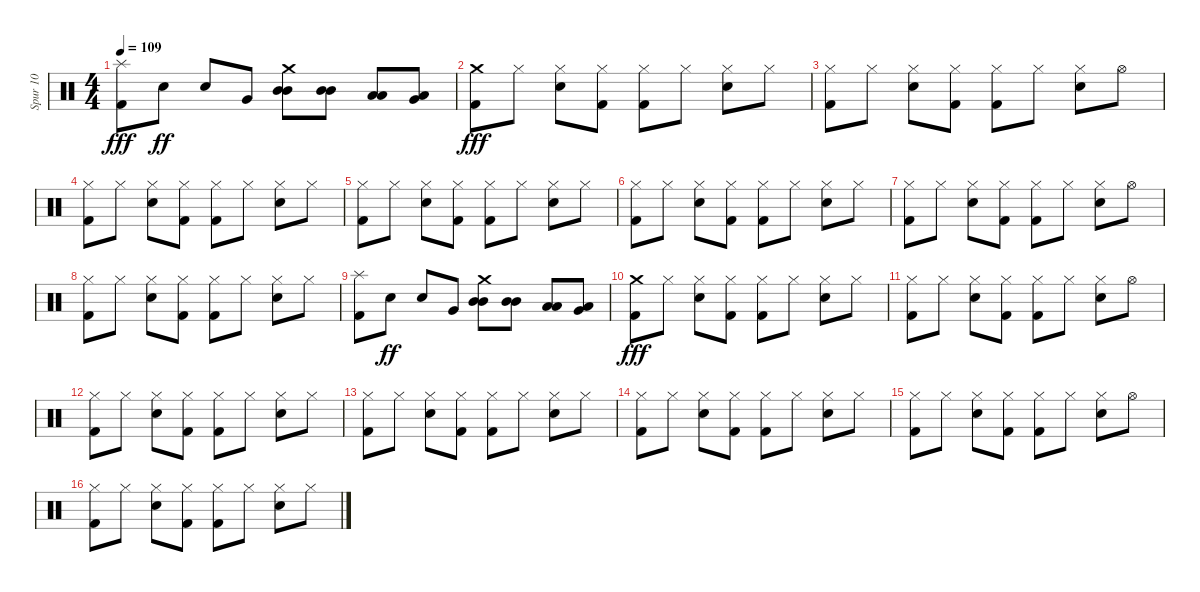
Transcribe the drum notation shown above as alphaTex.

\track ("Spur 10" "Spur 10") {instrument percussion}
\staff {score}
\articulation defaults
\ts (4 4)
\tempo 109
\clef neutral
\ks c
("Kick (hit) 2" "Splash (hit)").8{dy fff} "Snare (hit) 2".8{dy ff} "Snare (hit) 2".8 "Very Low Tom (hit)".8 ("Mid Tom (hit)" "Crash medium (hit)" "Mid Tom (hit)").8 ("Mid Tom (hit)" "Mid Tom (hit)").8 ("Low Tom (hit)" "Low Tom (hit)").8 ("Very Low Tom (hit)" "Low Floor Tom (hit)").8 |
("Kick (hit) 2" "Crash medium (hit)").8{dy fff} "Hi-Hat (closed)".8 ("Snare (hit) 2" "Hi-Hat (closed)").8 ("Kick (hit) 2" "Hi-Hat (closed)").8 ("Kick (hit) 2" "Hi-Hat (closed)").8 "Hi-Hat (closed)".8 ("Snare (hit) 2" "Hi-Hat (closed)").8 "Hi-Hat (closed)".8 |
("Kick (hit) 2" "Hi-Hat (closed)").8 "Hi-Hat (closed)".8 ("Snare (hit) 2" "Hi-Hat (closed)").8 ("Kick (hit) 2" "Hi-Hat (closed)").8 ("Kick (hit) 2" "Hi-Hat (closed)").8 "Hi-Hat (closed)".8 ("Snare (hit) 2" "Hi-Hat (closed)").8 "Hi-Hat (open)".8 |
("Kick (hit) 2" "Hi-Hat (closed)").8 "Hi-Hat (closed)".8 ("Snare (hit) 2" "Hi-Hat (closed)").8 ("Kick (hit) 2" "Hi-Hat (closed)").8 ("Kick (hit) 2" "Hi-Hat (closed)").8 "Hi-Hat (closed)".8 ("Snare (hit) 2" "Hi-Hat (closed)").8 "Hi-Hat (closed)".8 |
("Kick (hit) 2" "Hi-Hat (closed)").8 "Hi-Hat (closed)".8 ("Snare (hit) 2" "Hi-Hat (closed)").8 ("Kick (hit) 2" "Hi-Hat (closed)").8 ("Kick (hit) 2" "Hi-Hat (closed)").8 "Hi-Hat (closed)".8 ("Snare (hit) 2" "Hi-Hat (closed)").8 "Hi-Hat (closed)".8 |
("Kick (hit) 2" "Hi-Hat (closed)").8 "Hi-Hat (closed)".8 ("Snare (hit) 2" "Hi-Hat (closed)").8 ("Kick (hit) 2" "Hi-Hat (closed)").8 ("Kick (hit) 2" "Hi-Hat (closed)").8 "Hi-Hat (closed)".8 ("Snare (hit) 2" "Hi-Hat (closed)").8 "Hi-Hat (closed)".8 |
("Kick (hit) 2" "Hi-Hat (closed)").8 "Hi-Hat (closed)".8 ("Snare (hit) 2" "Hi-Hat (closed)").8 ("Kick (hit) 2" "Hi-Hat (closed)").8 ("Kick (hit) 2" "Hi-Hat (closed)").8 "Hi-Hat (closed)".8 ("Snare (hit) 2" "Hi-Hat (closed)").8 "Hi-Hat (open)".8 |
("Kick (hit) 2" "Hi-Hat (closed)").8 "Hi-Hat (closed)".8 ("Snare (hit) 2" "Hi-Hat (closed)").8 ("Kick (hit) 2" "Hi-Hat (closed)").8 ("Kick (hit) 2" "Hi-Hat (closed)").8 "Hi-Hat (closed)".8 ("Snare (hit) 2" "Hi-Hat (closed)").8 "Hi-Hat (closed)".8 |
("Kick (hit) 2" "Splash (hit)").8 "Snare (hit) 2".8{dy ff} "Snare (hit) 2".8 "Very Low Tom (hit)".8 ("Mid Tom (hit)" "Crash medium (hit)" "Mid Tom (hit)").8 ("Mid Tom (hit)" "Mid Tom (hit)").8 ("Low Tom (hit)" "Low Tom (hit)").8 ("Very Low Tom (hit)" "Low Floor Tom (hit)").8 |
("Kick (hit) 2" "Crash medium (hit)").8{dy fff} "Hi-Hat (closed)".8 ("Snare (hit) 2" "Hi-Hat (closed)").8 ("Kick (hit) 2" "Hi-Hat (closed)").8 ("Kick (hit) 2" "Hi-Hat (closed)").8 "Hi-Hat (closed)".8 ("Snare (hit) 2" "Hi-Hat (closed)").8 "Hi-Hat (closed)".8 |
("Kick (hit) 2" "Hi-Hat (closed)").8 "Hi-Hat (closed)".8 ("Snare (hit) 2" "Hi-Hat (closed)").8 ("Kick (hit) 2" "Hi-Hat (closed)").8 ("Kick (hit) 2" "Hi-Hat (closed)").8 "Hi-Hat (closed)".8 ("Snare (hit) 2" "Hi-Hat (closed)").8 "Hi-Hat (open)".8 |
("Kick (hit) 2" "Hi-Hat (closed)").8 "Hi-Hat (closed)".8 ("Snare (hit) 2" "Hi-Hat (closed)").8 ("Kick (hit) 2" "Hi-Hat (closed)").8 ("Kick (hit) 2" "Hi-Hat (closed)").8 "Hi-Hat (closed)".8 ("Snare (hit) 2" "Hi-Hat (closed)").8 "Hi-Hat (closed)".8 |
("Kick (hit) 2" "Hi-Hat (closed)").8 "Hi-Hat (closed)".8 ("Snare (hit) 2" "Hi-Hat (closed)").8 ("Kick (hit) 2" "Hi-Hat (closed)").8 ("Kick (hit) 2" "Hi-Hat (closed)").8 "Hi-Hat (closed)".8 ("Snare (hit) 2" "Hi-Hat (closed)").8 "Hi-Hat (closed)".8 |
("Kick (hit) 2" "Hi-Hat (closed)").8 "Hi-Hat (closed)".8 ("Snare (hit) 2" "Hi-Hat (closed)").8 ("Kick (hit) 2" "Hi-Hat (closed)").8 ("Kick (hit) 2" "Hi-Hat (closed)").8 "Hi-Hat (closed)".8 ("Snare (hit) 2" "Hi-Hat (closed)").8 "Hi-Hat (closed)".8 |
("Kick (hit) 2" "Hi-Hat (closed)").8 "Hi-Hat (closed)".8 ("Snare (hit) 2" "Hi-Hat (closed)").8 ("Kick (hit) 2" "Hi-Hat (closed)").8 ("Kick (hit) 2" "Hi-Hat (closed)").8 "Hi-Hat (closed)".8 ("Snare (hit) 2" "Hi-Hat (closed)").8 "Hi-Hat (open)".8 |
("Kick (hit) 2" "Hi-Hat (closed)").8 "Hi-Hat (closed)".8 ("Snare (hit) 2" "Hi-Hat (closed)").8 ("Kick (hit) 2" "Hi-Hat (closed)").8 ("Kick (hit) 2" "Hi-Hat (closed)").8 "Hi-Hat (closed)".8 ("Snare (hit) 2" "Hi-Hat (closed)").8 "Hi-Hat (closed)".8
